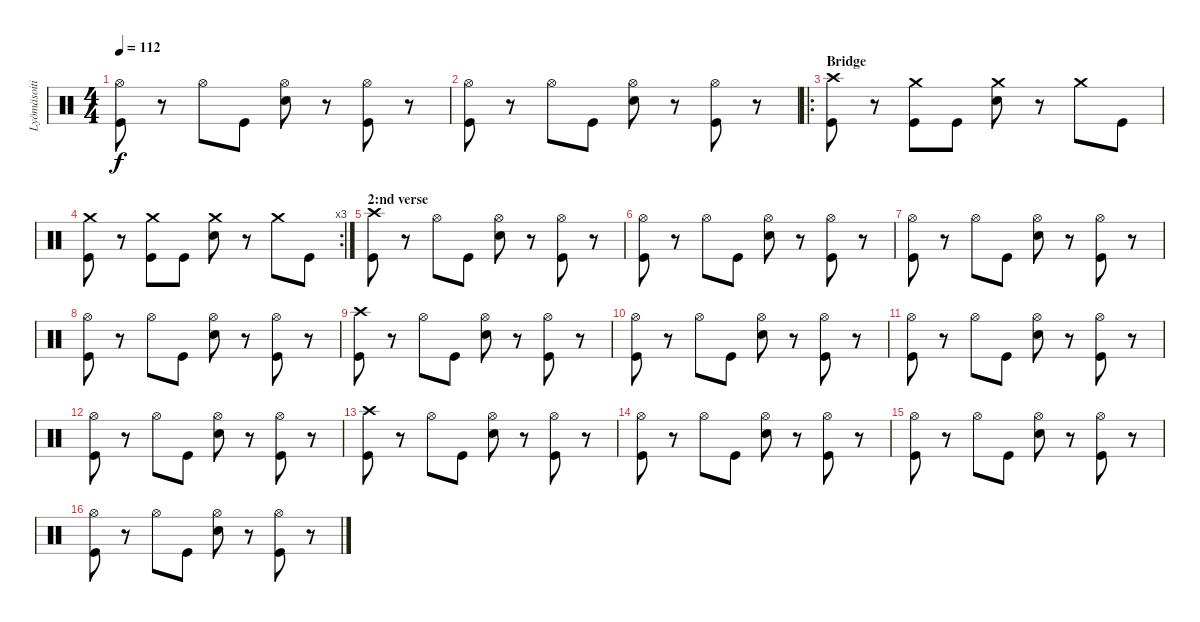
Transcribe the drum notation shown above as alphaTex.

\track ("Lyömäsoitin" "Lyömäsoiti") {instrument percussion}
\staff {score}
\articulation defaults
\ts (4 4)
\tempo 112
\clef neutral
\ks c
("Hi-Hat (open)" "Kick (hit)").8{dy f} r.8 "Hi-Hat (open)".8 "Kick (hit)".8 ("Hi-Hat (open)" "Snare (hit) 2").8 r.8 ("Hi-Hat (open)" "Kick (hit)").8 r.8 |
("Hi-Hat (open)" "Kick (hit)").8 r.8 "Hi-Hat (open)".8 "Kick (hit)".8 ("Hi-Hat (open)" "Snare (hit) 2").8 r.8 ("Hi-Hat (open)" "Kick (hit)").8 r.8 |
\ro
\section ("" "Bridge")
("Crash high (hit)" "Kick (hit)").8 r.8 ("Crash medium (hit)" "Kick (hit)").8 "Kick (hit)".8 ("Crash medium (hit)" "Snare (hit) 2").8 r.8 "Crash medium (hit)".8 "Kick (hit)".8 |
\rc 3
("Crash medium (hit)" "Kick (hit)").8 r.8 ("Crash medium (hit)" "Kick (hit)").8 "Kick (hit)".8 ("Crash medium (hit)" "Snare (hit) 2").8 r.8 "Crash medium (hit)".8 "Kick (hit)".8 |
\section ("" "2:nd verse")
("Crash high (hit)" "Kick (hit)").8 r.8 "Hi-Hat (open)".8 "Kick (hit)".8 ("Hi-Hat (open)" "Snare (hit) 2").8 r.8 ("Hi-Hat (open)" "Kick (hit)").8 r.8 |
("Hi-Hat (open)" "Kick (hit)").8 r.8 "Hi-Hat (open)".8 "Kick (hit)".8 ("Hi-Hat (open)" "Snare (hit) 2").8 r.8 ("Hi-Hat (open)" "Kick (hit)").8 r.8 |
("Hi-Hat (open)" "Kick (hit)").8 r.8 "Hi-Hat (open)".8 "Kick (hit)".8 ("Hi-Hat (open)" "Snare (hit) 2").8 r.8 ("Hi-Hat (open)" "Kick (hit)").8 r.8 |
("Hi-Hat (open)" "Kick (hit)").8 r.8 "Hi-Hat (open)".8 "Kick (hit)".8 ("Hi-Hat (open)" "Snare (hit) 2").8 r.8 ("Hi-Hat (open)" "Kick (hit)").8 r.8 |
("Crash high (hit)" "Kick (hit)").8 r.8 "Hi-Hat (open)".8 "Kick (hit)".8 ("Hi-Hat (open)" "Snare (hit) 2").8 r.8 ("Hi-Hat (open)" "Kick (hit)").8 r.8 |
("Hi-Hat (open)" "Kick (hit)").8 r.8 "Hi-Hat (open)".8 "Kick (hit)".8 ("Hi-Hat (open)" "Snare (hit) 2").8 r.8 ("Hi-Hat (open)" "Kick (hit)").8 r.8 |
("Hi-Hat (open)" "Kick (hit)").8 r.8 "Hi-Hat (open)".8 "Kick (hit)".8 ("Hi-Hat (open)" "Snare (hit) 2").8 r.8 ("Hi-Hat (open)" "Kick (hit)").8 r.8 |
("Hi-Hat (open)" "Kick (hit)").8 r.8 "Hi-Hat (open)".8 "Kick (hit)".8 ("Hi-Hat (open)" "Snare (hit) 2").8 r.8 ("Hi-Hat (open)" "Kick (hit)").8 r.8 |
("Crash high (hit)" "Kick (hit)").8 r.8 "Hi-Hat (open)".8 "Kick (hit)".8 ("Hi-Hat (open)" "Snare (hit) 2").8 r.8 ("Hi-Hat (open)" "Kick (hit)").8 r.8 |
("Hi-Hat (open)" "Kick (hit)").8 r.8 "Hi-Hat (open)".8 "Kick (hit)".8 ("Hi-Hat (open)" "Snare (hit) 2").8 r.8 ("Hi-Hat (open)" "Kick (hit)").8 r.8 |
("Hi-Hat (open)" "Kick (hit)").8 r.8 "Hi-Hat (open)".8 "Kick (hit)".8 ("Hi-Hat (open)" "Snare (hit) 2").8 r.8 ("Hi-Hat (open)" "Kick (hit)").8 r.8 |
("Hi-Hat (open)" "Kick (hit)").8 r.8 "Hi-Hat (open)".8 "Kick (hit)".8 ("Hi-Hat (open)" "Snare (hit) 2").8 r.8 ("Hi-Hat (open)" "Kick (hit)").8 r.8
